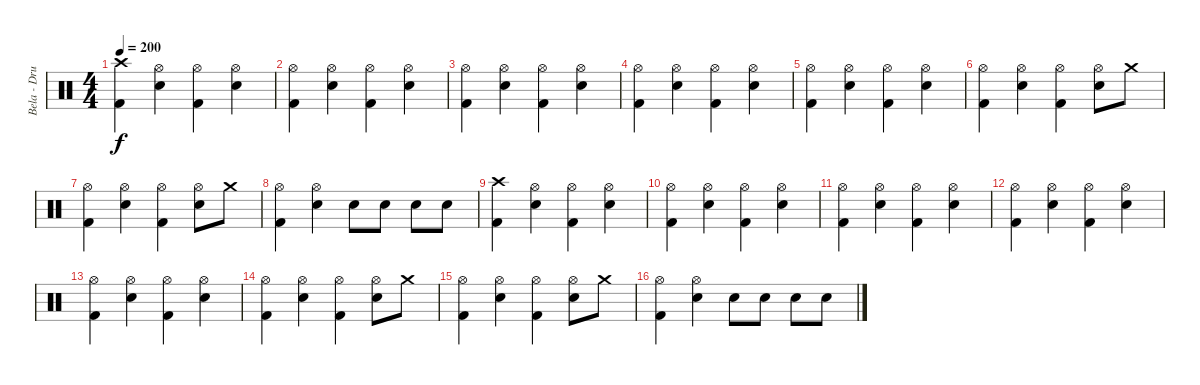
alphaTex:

\track ("Bela - Drums" "Bela - Dru") {instrument percussion}
\staff {score}
\articulation defaults
\ts (4 4)
\tempo 200
\clef neutral
\ks c
("Crash high (hit)" "Kick (hit) 2").4{dy f} ("Hi-Hat (open)" "Snare (hit) 2").4 ("Hi-Hat (open)" "Kick (hit) 2").4 ("Hi-Hat (open)" "Snare (hit) 2").4 |
("Hi-Hat (open)" "Kick (hit) 2").4 ("Hi-Hat (open)" "Snare (hit) 2").4 ("Hi-Hat (open)" "Kick (hit) 2").4 ("Hi-Hat (open)" "Snare (hit) 2").4 |
("Hi-Hat (open)" "Kick (hit) 2").4 ("Hi-Hat (open)" "Snare (hit) 2").4 ("Hi-Hat (open)" "Kick (hit) 2").4 ("Hi-Hat (open)" "Snare (hit) 2").4 |
("Hi-Hat (open)" "Kick (hit) 2").4 ("Hi-Hat (open)" "Snare (hit) 2").4 ("Hi-Hat (open)" "Kick (hit) 2").4 ("Hi-Hat (open)" "Snare (hit) 2").4 |
("Hi-Hat (open)" "Kick (hit) 2").4 ("Hi-Hat (open)" "Snare (hit) 2").4 ("Hi-Hat (open)" "Kick (hit) 2").4 ("Hi-Hat (open)" "Snare (hit) 2").4 |
("Hi-Hat (open)" "Kick (hit) 2").4 ("Hi-Hat (open)" "Snare (hit) 2").4 ("Hi-Hat (open)" "Kick (hit) 2").4 ("Hi-Hat (open)" "Snare (hit) 2").8 "Crash medium (hit)".8 |
("Hi-Hat (open)" "Kick (hit) 2").4 ("Hi-Hat (open)" "Snare (hit) 2").4 ("Hi-Hat (open)" "Kick (hit) 2").4 ("Hi-Hat (open)" "Snare (hit) 2").8 "Crash medium (hit)".8 |
("Hi-Hat (open)" "Kick (hit) 2").4 ("Hi-Hat (open)" "Snare (hit) 2").4 "Snare (hit) 2".8 "Snare (hit) 2".8 "Snare (hit) 2".8 "Snare (hit) 2".8 |
("Crash high (hit)" "Kick (hit) 2").4 ("Hi-Hat (open)" "Snare (hit) 2").4 ("Hi-Hat (open)" "Kick (hit) 2").4 ("Hi-Hat (open)" "Snare (hit) 2").4 |
("Hi-Hat (open)" "Kick (hit) 2").4 ("Hi-Hat (open)" "Snare (hit) 2").4 ("Hi-Hat (open)" "Kick (hit) 2").4 ("Hi-Hat (open)" "Snare (hit) 2").4 |
("Hi-Hat (open)" "Kick (hit) 2").4 ("Hi-Hat (open)" "Snare (hit) 2").4 ("Hi-Hat (open)" "Kick (hit) 2").4 ("Hi-Hat (open)" "Snare (hit) 2").4 |
("Hi-Hat (open)" "Kick (hit) 2").4 ("Hi-Hat (open)" "Snare (hit) 2").4 ("Hi-Hat (open)" "Kick (hit) 2").4 ("Hi-Hat (open)" "Snare (hit) 2").4 |
("Hi-Hat (open)" "Kick (hit) 2").4 ("Hi-Hat (open)" "Snare (hit) 2").4 ("Hi-Hat (open)" "Kick (hit) 2").4 ("Hi-Hat (open)" "Snare (hit) 2").4 |
("Hi-Hat (open)" "Kick (hit) 2").4 ("Hi-Hat (open)" "Snare (hit) 2").4 ("Hi-Hat (open)" "Kick (hit) 2").4 ("Hi-Hat (open)" "Snare (hit) 2").8 "Crash medium (hit)".8 |
("Hi-Hat (open)" "Kick (hit) 2").4 ("Hi-Hat (open)" "Snare (hit) 2").4 ("Hi-Hat (open)" "Kick (hit) 2").4 ("Hi-Hat (open)" "Snare (hit) 2").8 "Crash medium (hit)".8 |
("Hi-Hat (open)" "Kick (hit) 2").4 ("Hi-Hat (open)" "Snare (hit) 2").4 "Snare (hit) 2".8 "Snare (hit) 2".8 "Snare (hit) 2".8 "Snare (hit) 2".8
